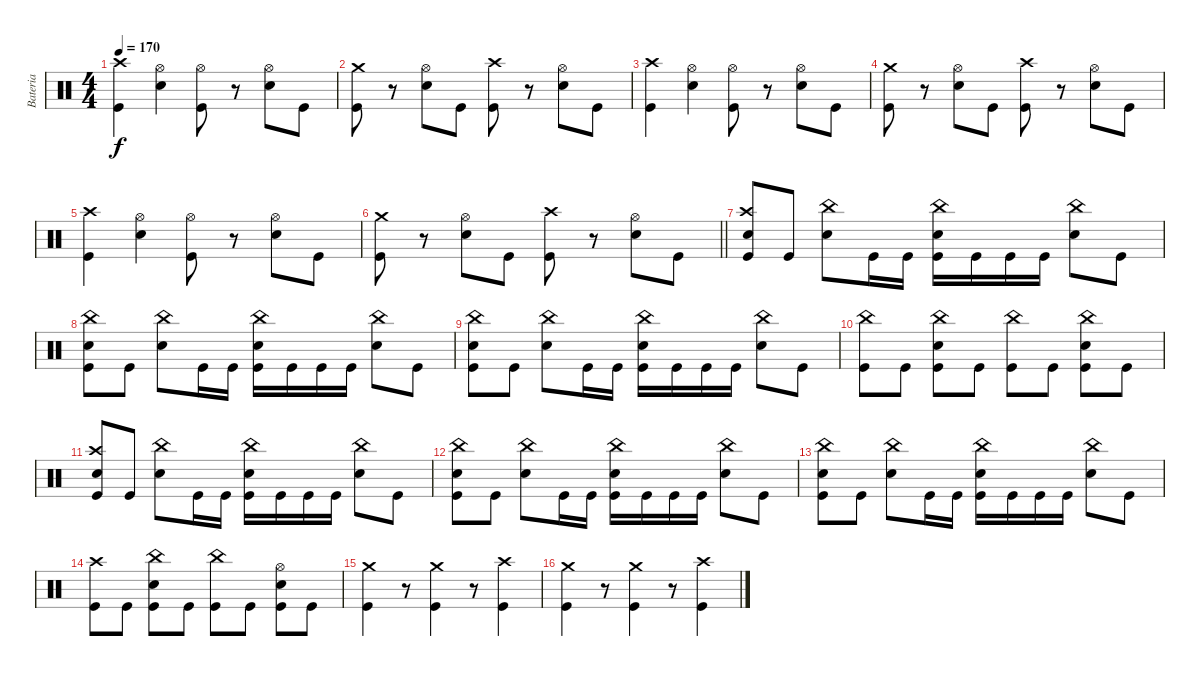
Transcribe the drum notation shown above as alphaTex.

\track ("Bateria" "Bateria") {instrument percussion}
\staff {score}
\articulation defaults
\ts (4 4)
\tempo 170
\clef neutral
\ks c
("Kick (hit)" "Crash high (hit)").4{dy f} ("Snare (hit) 2" "Hi-Hat (open)").4 ("Kick (hit)" "Hi-Hat (open)").8 r.8 ("Snare (hit) 2" "Hi-Hat (open)").8 "Kick (hit)".8 |
("Kick (hit)" "Crash medium (hit)").8 r.8 ("Snare (hit) 2" "Hi-Hat (open)").8 "Kick (hit)".8 ("Kick (hit)" "Crash high (hit)").8 r.8 ("Snare (hit) 2" "Hi-Hat (open)").8 "Kick (hit)".8 |
("Kick (hit)" "Crash high (hit)").4 ("Snare (hit) 2" "Hi-Hat (open)").4 ("Kick (hit)" "Hi-Hat (open)").8 r.8 ("Snare (hit) 2" "Hi-Hat (open)").8 "Kick (hit)".8 |
("Kick (hit)" "Crash medium (hit)").8 r.8 ("Snare (hit) 2" "Hi-Hat (open)").8 "Kick (hit)".8 ("Kick (hit)" "Crash high (hit)").8 r.8 ("Snare (hit) 2" "Hi-Hat (open)").8 "Kick (hit)".8 |
("Kick (hit)" "Crash high (hit)").4 ("Snare (hit) 2" "Hi-Hat (open)").4 ("Kick (hit)" "Hi-Hat (open)").8 r.8 ("Snare (hit) 2" "Hi-Hat (open)").8 "Kick (hit)".8 |
\barLineRight lightlight
("Kick (hit)" "Crash medium (hit)").8 r.8 ("Snare (hit) 2" "Hi-Hat (open)").8 "Kick (hit)".8 ("Kick (hit)" "Crash high (hit)").8 r.8 ("Snare (hit) 2" "Hi-Hat (open)").8 "Kick (hit)".8 |
("Snare (hit) 2" "Kick (hit)" "Crash high (hit)").8 "Kick (hit)".8 ("Snare (hit) 2" "China (hit)").8 "Kick (hit)".16 "Kick (hit)".16 ("Snare (hit) 2" "Kick (hit)" "China (hit)").16 "Kick (hit)".16 "Kick (hit)".16 "Kick (hit)".16 ("Snare (hit) 2" "China (hit)").8 "Kick (hit)".8 |
("Snare (hit) 2" "Kick (hit)" "China (hit)").8 "Kick (hit)".8 ("Snare (hit) 2" "China (hit)").8 "Kick (hit)".16 "Kick (hit)".16 ("Snare (hit) 2" "Kick (hit)" "China (hit)").16 "Kick (hit)".16 "Kick (hit)".16 "Kick (hit)".16 ("Snare (hit) 2" "China (hit)").8 "Kick (hit)".8 |
("Snare (hit) 2" "Kick (hit)" "China (hit)").8 "Kick (hit)".8 ("Snare (hit) 2" "China (hit)").8 "Kick (hit)".16 "Kick (hit)".16 ("Snare (hit) 2" "Kick (hit)" "China (hit)").16 "Kick (hit)".16 "Kick (hit)".16 "Kick (hit)".16 ("Snare (hit) 2" "China (hit)").8 "Kick (hit)".8 |
("Kick (hit)" "China (hit)").8 "Kick (hit)".8 ("Snare (hit) 2" "Kick (hit)" "China (hit)").8 "Kick (hit)".8 ("Kick (hit)" "China (hit)").8 "Kick (hit)".8 ("Snare (hit) 2" "Kick (hit)" "China (hit)").8 "Kick (hit)".8 |
("Snare (hit) 2" "Kick (hit)" "Crash high (hit)").8 "Kick (hit)".8 ("Snare (hit) 2" "China (hit)").8 "Kick (hit)".16 "Kick (hit)".16 ("Snare (hit) 2" "Kick (hit)" "China (hit)").16 "Kick (hit)".16 "Kick (hit)".16 "Kick (hit)".16 ("Snare (hit) 2" "China (hit)").8 "Kick (hit)".8 |
("Snare (hit) 2" "Kick (hit)" "China (hit)").8 "Kick (hit)".8 ("Snare (hit) 2" "China (hit)").8 "Kick (hit)".16 "Kick (hit)".16 ("Snare (hit) 2" "Kick (hit)" "China (hit)").16 "Kick (hit)".16 "Kick (hit)".16 "Kick (hit)".16 ("Snare (hit) 2" "China (hit)").8 "Kick (hit)".8 |
("Snare (hit) 2" "Kick (hit)" "China (hit)").8 "Kick (hit)".8 ("Snare (hit) 2" "China (hit)").8 "Kick (hit)".16 "Kick (hit)".16 ("Snare (hit) 2" "Kick (hit)" "China (hit)").16 "Kick (hit)".16 "Kick (hit)".16 "Kick (hit)".16 ("Snare (hit) 2" "China (hit)").8 "Kick (hit)".8 |
("Kick (hit)" "Crash high (hit)").8 "Kick (hit)".8 ("Snare (hit) 2" "Kick (hit)" "China (hit)").8 "Kick (hit)".8 ("Kick (hit)" "China (hit)").8 "Kick (hit)".8 ("Snare (hit) 2" "Kick (hit)" "Hi-Hat (open)").8 "Kick (hit)".8 |
("Kick (hit)" "Crash medium (hit)").4 r.8 ("Kick (hit)" "Crash medium (hit)").4 r.8 ("Kick (hit)" "Crash high (hit)").4 |
("Kick (hit)" "Crash medium (hit)").4 r.8 ("Kick (hit)" "Crash medium (hit)").4 r.8 ("Kick (hit)" "Crash high (hit)").4
